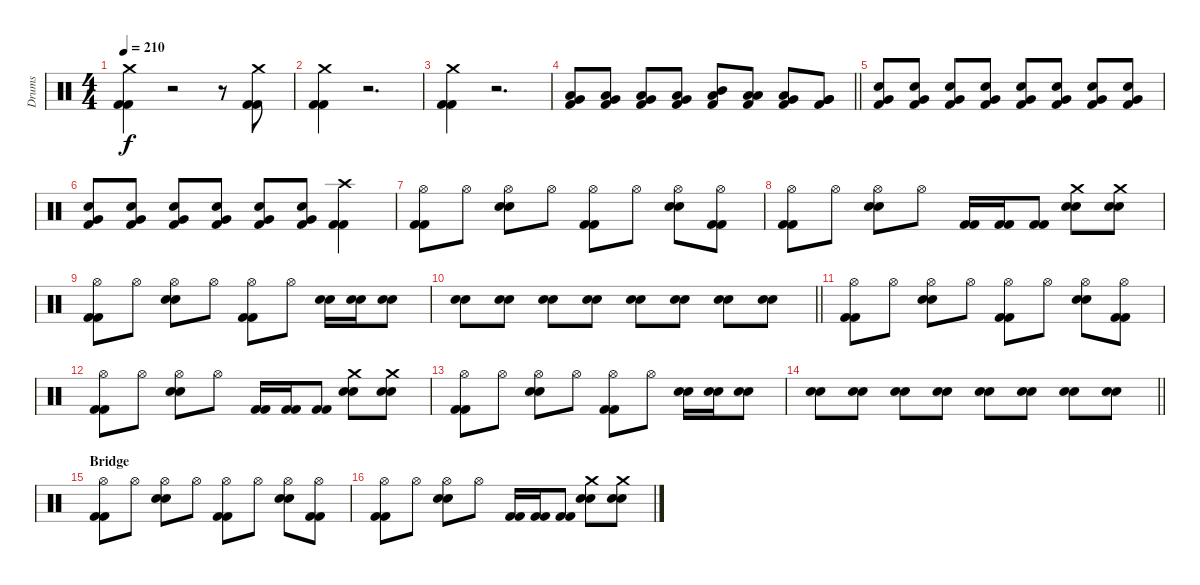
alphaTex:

\track ("Drums" "Drums") {instrument percussion}
\staff {score}
\articulation defaults
\ts (4 4)
\tempo 210
\clef neutral
\ks c
("Crash medium (hit)" "Kick (hit) 2" "Kick (hit) 2").4{dy f} r.2 r.8 ("Crash medium (hit)" "Kick (hit) 2" "Kick (hit) 2").8 |
("Crash medium (hit)" "Kick (hit) 2" "Kick (hit) 2").4 r.2{d} |
("Crash medium (hit)" "Kick (hit) 2" "Kick (hit) 2").4 r.2{d} |
\barLineRight lightlight
("Low Tom (hit)" "Very Low Tom (hit)" "Kick (hit) 2").8 ("Low Tom (hit)" "Very Low Tom (hit)" "Kick (hit) 2").8 ("Low Tom (hit)" "Very Low Tom (hit)" "Kick (hit) 2").8 ("Low Tom (hit)" "Very Low Tom (hit)" "Kick (hit) 2").8 ("Mid Tom (hit)" "Low Tom (hit)" "Kick (hit) 2").8 ("Low Tom (hit)" "Low Tom (hit)" "Kick (hit) 2").8 ("Very Low Tom (hit)" "Low Tom (hit)" "Kick (hit) 2").8 ("Very Low Tom (hit)" "Very Low Tom (hit)" "Kick (hit) 2").8 |
("Very Low Tom (hit)" "Snare (hit) 2" "Kick (hit) 2").8 ("Very Low Tom (hit)" "Snare (hit) 2" "Kick (hit) 2").8 ("Very Low Tom (hit)" "Snare (hit) 2" "Kick (hit) 2").8 ("Very Low Tom (hit)" "Snare (hit) 2" "Kick (hit) 2").8 ("Very Low Tom (hit)" "Snare (hit) 2" "Kick (hit) 2").8 ("Very Low Tom (hit)" "Snare (hit) 2" "Kick (hit) 2").8 ("Very Low Tom (hit)" "Snare (hit) 2" "Kick (hit) 2").8 ("Very Low Tom (hit)" "Snare (hit) 2" "Kick (hit) 2").8 |
("Very Low Tom (hit)" "Snare (hit) 2" "Kick (hit) 2").8 ("Very Low Tom (hit)" "Snare (hit) 2" "Kick (hit) 2").8 ("Very Low Tom (hit)" "Snare (hit) 2" "Kick (hit) 2").8 ("Very Low Tom (hit)" "Snare (hit) 2" "Kick (hit) 2").8 ("Very Low Tom (hit)" "Snare (hit) 2" "Kick (hit) 2").8 ("Very Low Tom (hit)" "Snare (hit) 2" "Kick (hit) 2").8 ("Crash high (hit)" "Kick (hit) 2" "Kick (hit) 2").4 |
("Hi-Hat (open)" "Kick (hit) 2" "Kick (hit) 2").8 "Hi-Hat (open)".8 ("Hi-Hat (open)" "Snare (hit) 2" "Snare (hit) 2").8 "Hi-Hat (open)".8 ("Hi-Hat (open)" "Kick (hit) 2" "Kick (hit) 2").8 "Hi-Hat (open)".8 ("Hi-Hat (open)" "Snare (hit) 2" "Snare (hit) 2").8 ("Hi-Hat (open)" "Kick (hit) 2" "Kick (hit) 2").8 |
("Hi-Hat (open)" "Kick (hit) 2" "Kick (hit) 2").8 "Hi-Hat (open)".8 ("Hi-Hat (open)" "Snare (hit) 2" "Snare (hit) 2").8 "Hi-Hat (open)".8 ("Kick (hit) 2" "Kick (hit) 2").16 ("Kick (hit) 2" "Kick (hit) 2").16 ("Kick (hit) 2" "Kick (hit) 2").8 ("Crash medium (hit)" "Snare (hit) 2" "Snare (hit) 2").8 ("Crash medium (hit)" "Snare (hit) 2" "Snare (hit) 2").8 |
("Hi-Hat (open)" "Kick (hit) 2" "Kick (hit) 2").8 "Hi-Hat (open)".8 ("Hi-Hat (open)" "Snare (hit) 2" "Snare (hit) 2").8 "Hi-Hat (open)".8 ("Hi-Hat (open)" "Kick (hit) 2" "Kick (hit) 2").8 "Hi-Hat (open)".8 ("Snare (hit) 2" "Snare (hit) 2").16 ("Snare (hit) 2" "Snare (hit) 2").16 ("Snare (hit) 2" "Snare (hit) 2").8 |
\barLineRight lightlight
("Snare (hit) 2" "Snare (hit) 2").8 ("Snare (hit) 2" "Snare (hit) 2").8 ("Snare (hit) 2" "Snare (hit) 2").8 ("Snare (hit) 2" "Snare (hit) 2").8 ("Snare (hit) 2" "Snare (hit) 2").8 ("Snare (hit) 2" "Snare (hit) 2").8 ("Snare (hit) 2" "Snare (hit) 2").8 ("Snare (hit) 2" "Snare (hit) 2").8 |
("Hi-Hat (open)" "Kick (hit) 2" "Kick (hit) 2").8 "Hi-Hat (open)".8 ("Hi-Hat (open)" "Snare (hit) 2" "Snare (hit) 2").8 "Hi-Hat (open)".8 ("Hi-Hat (open)" "Kick (hit) 2" "Kick (hit) 2").8 "Hi-Hat (open)".8 ("Hi-Hat (open)" "Snare (hit) 2" "Snare (hit) 2").8 ("Hi-Hat (open)" "Kick (hit) 2" "Kick (hit) 2").8 |
("Hi-Hat (open)" "Kick (hit) 2" "Kick (hit) 2").8 "Hi-Hat (open)".8 ("Hi-Hat (open)" "Snare (hit) 2" "Snare (hit) 2").8 "Hi-Hat (open)".8 ("Kick (hit) 2" "Kick (hit) 2").16 ("Kick (hit) 2" "Kick (hit) 2").16 ("Kick (hit) 2" "Kick (hit) 2").8 ("Crash medium (hit)" "Snare (hit) 2" "Snare (hit) 2").8 ("Crash medium (hit)" "Snare (hit) 2" "Snare (hit) 2").8 |
("Hi-Hat (open)" "Kick (hit) 2" "Kick (hit) 2").8 "Hi-Hat (open)".8 ("Hi-Hat (open)" "Snare (hit) 2" "Snare (hit) 2").8 "Hi-Hat (open)".8 ("Hi-Hat (open)" "Kick (hit) 2" "Kick (hit) 2").8 "Hi-Hat (open)".8 ("Snare (hit) 2" "Snare (hit) 2").16 ("Snare (hit) 2" "Snare (hit) 2").16 ("Snare (hit) 2" "Snare (hit) 2").8 |
\barLineRight lightlight
("Snare (hit) 2" "Snare (hit) 2").8 ("Snare (hit) 2" "Snare (hit) 2").8 ("Snare (hit) 2" "Snare (hit) 2").8 ("Snare (hit) 2" "Snare (hit) 2").8 ("Snare (hit) 2" "Snare (hit) 2").8 ("Snare (hit) 2" "Snare (hit) 2").8 ("Snare (hit) 2" "Snare (hit) 2").8 ("Snare (hit) 2" "Snare (hit) 2").8 |
\section ("" "Bridge")
("Hi-Hat (open)" "Kick (hit) 2" "Kick (hit) 2").8 "Hi-Hat (open)".8 ("Hi-Hat (open)" "Snare (hit) 2" "Snare (hit) 2").8 "Hi-Hat (open)".8 ("Hi-Hat (open)" "Kick (hit) 2" "Kick (hit) 2").8 "Hi-Hat (open)".8 ("Hi-Hat (open)" "Snare (hit) 2" "Snare (hit) 2").8 ("Hi-Hat (open)" "Kick (hit) 2" "Kick (hit) 2").8 |
("Hi-Hat (open)" "Kick (hit) 2" "Kick (hit) 2").8 "Hi-Hat (open)".8 ("Hi-Hat (open)" "Snare (hit) 2" "Snare (hit) 2").8 "Hi-Hat (open)".8 ("Kick (hit) 2" "Kick (hit) 2").16 ("Kick (hit) 2" "Kick (hit) 2").16 ("Kick (hit) 2" "Kick (hit) 2").8 ("Crash medium (hit)" "Snare (hit) 2" "Snare (hit) 2").8 ("Crash medium (hit)" "Snare (hit) 2" "Snare (hit) 2").8
